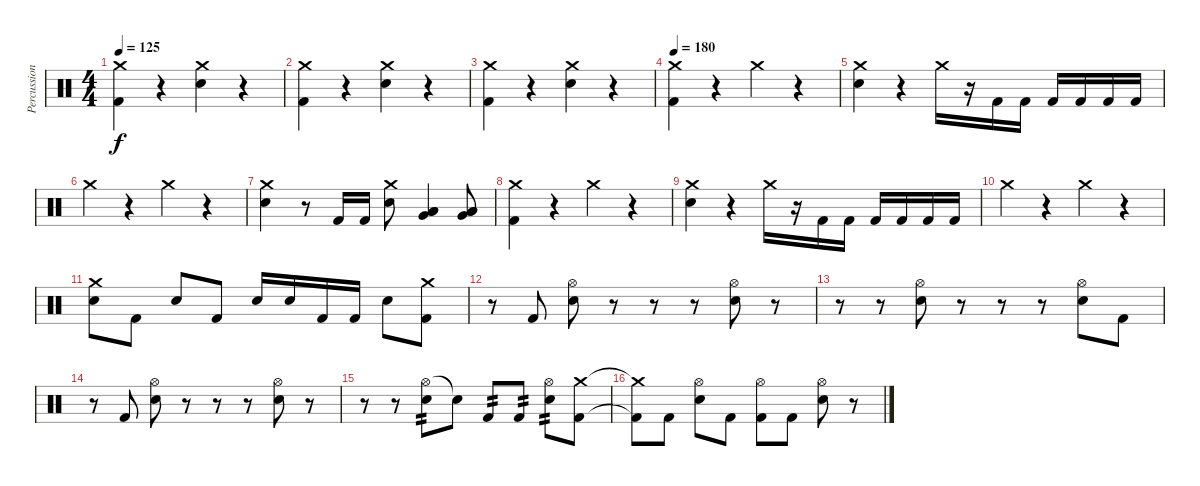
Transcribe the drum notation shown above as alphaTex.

\track ("Percussion" "Percussion") {instrument percussion}
\staff {score}
\articulation defaults
\ts (4 4)
\tempo 125
\clef neutral
\ks c
("Crash medium (hit)" "Kick (hit) 2").4{dy f} r.4 ("Crash medium (hit)" "Electric Snare (hit)").4 r.4 |
("Crash medium (hit)" "Kick (hit) 2").4 r.4 ("Crash medium (hit)" "Electric Snare (hit)").4 r.4 |
("Crash medium (hit)" "Kick (hit) 2").4 r.4 ("Crash medium (hit)" "Electric Snare (hit)").4 r.4 |
\tempo 180
("Crash medium (hit)" "Kick (hit) 2").4 r.4 "Crash medium (hit)".4 r.4 |
("Crash medium (hit)" "Electric Snare (hit)").4 r.4 "Crash medium (hit)".16 r.16 "Kick (hit) 2".16 "Kick (hit) 2".16 "Kick (hit) 2".16 "Kick (hit) 2".16 "Kick (hit) 2".16 "Kick (hit) 2".16 |
"Crash medium (hit)".4 r.4 "Crash medium (hit)".4 r.4 |
("Crash medium (hit)" "Electric Snare (hit)").4 r.8 "Kick (hit) 2".16 "Kick (hit) 2".16 ("Crash medium (hit)" "Electric Snare (hit)").8 ("Low Tom (hit)" "Very Low Tom (hit)" "Low Floor Tom (hit)").4 ("Low Tom (hit)" "Very Low Tom (hit)" "Low Floor Tom (hit)").8 |
("Crash medium (hit)" "Kick (hit) 2").4 r.4 "Crash medium (hit)".4 r.4 |
("Crash medium (hit)" "Electric Snare (hit)").4 r.4 "Crash medium (hit)".16 r.16 "Kick (hit) 2".16 "Kick (hit) 2".16 "Kick (hit) 2".16 "Kick (hit) 2".16 "Kick (hit) 2".16 "Kick (hit) 2".16 |
"Crash medium (hit)".4 r.4 "Crash medium (hit)".4 r.4 |
("Crash medium (hit)" "Electric Snare (hit)").8 "Kick (hit) 2".8 "Electric Snare (hit)".8 "Kick (hit) 2".8 "Electric Snare (hit)".16 "Electric Snare (hit)".16 "Kick (hit) 2".16 "Kick (hit) 2".16 "Electric Snare (hit)".8 ("Crash medium (hit)" "Kick (hit) 2").8 |
r.8 "Kick (hit) 2".8 ("Hi-Hat (open)" "Electric Snare (hit)").8 r.8 r.8 r.8 ("Hi-Hat (open)" "Electric Snare (hit)").8 r.8 |
r.8 r.8 ("Hi-Hat (open)" "Electric Snare (hit)").8 r.8 r.8 r.8 ("Hi-Hat (open)" "Electric Snare (hit)").8 "Kick (hit) 2".8 |
r.8 "Kick (hit) 2".8 ("Hi-Hat (open)" "Electric Snare (hit)").8 r.8 r.8 r.8 ("Hi-Hat (open)" "Electric Snare (hit)").8 r.8 |
r.8 r.8 ("Hi-Hat (open)" "Electric Snare (hit)").8{tp 2} "Snare (hit)"{t}.8 "Kick (hit) 2".8{tp 2} "Kick (hit) 2".8{tp 2} ("Hi-Hat (open)" "Electric Snare (hit)").8{tp 2} ("Crash medium (hit)" "Kick (hit) 2").8 |
("Crash medium (hit)"{t} "Kick (hit) 2"{t}).8 "Kick (hit) 2".8 ("Hi-Hat (open)" "Electric Snare (hit)").8 "Kick (hit) 2".8 ("Hi-Hat (open)" "Kick (hit) 2").8 "Kick (hit) 2".8 ("Hi-Hat (open)" "Electric Snare (hit)").8 r.8
